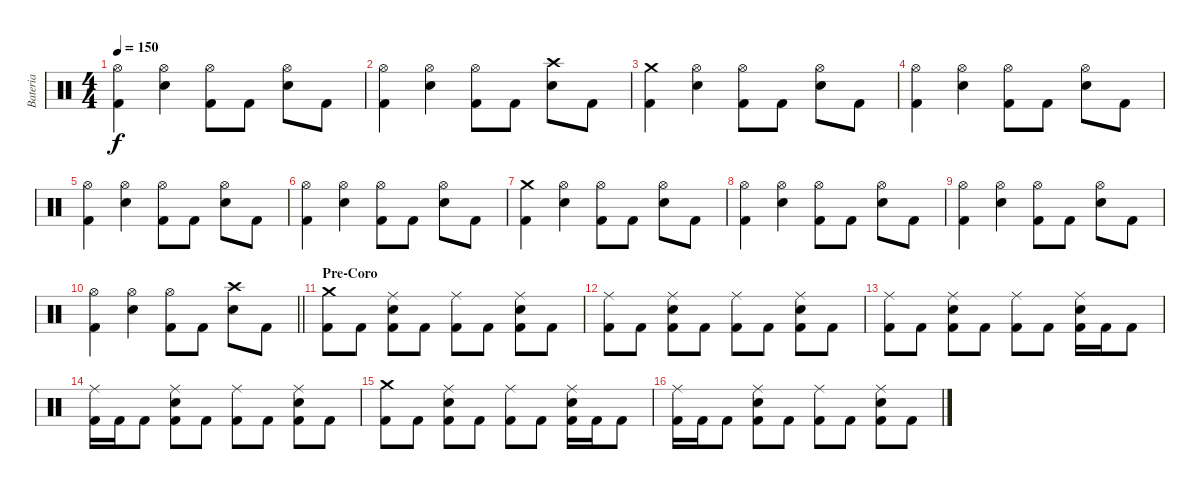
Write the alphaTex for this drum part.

\track ("Bateria" "Bateria") {instrument percussion}
\staff {score}
\articulation defaults
\ts (4 4)
\tempo 150
\clef neutral
\ks c
("Hi-Hat (open)" "Kick (hit) 2").4{dy f} ("Hi-Hat (open)" "Snare (hit) 2").4 ("Hi-Hat (open)" "Kick (hit) 2").8 "Kick (hit) 2".8 ("Hi-Hat (open)" "Snare (hit) 2").8 "Kick (hit) 2".8 |
("Hi-Hat (open)" "Kick (hit) 2").4 ("Hi-Hat (open)" "Snare (hit) 2").4 ("Hi-Hat (open)" "Kick (hit) 2").8 "Kick (hit) 2".8 ("Crash high (hit)" "Snare (hit) 2").8 "Kick (hit) 2".8 |
("Crash medium (hit)" "Kick (hit) 2").4 ("Hi-Hat (open)" "Snare (hit) 2").4 ("Hi-Hat (open)" "Kick (hit) 2").8 "Kick (hit) 2".8 ("Hi-Hat (open)" "Snare (hit) 2").8 "Kick (hit) 2".8 |
("Hi-Hat (open)" "Kick (hit) 2").4 ("Hi-Hat (open)" "Snare (hit) 2").4 ("Hi-Hat (open)" "Kick (hit) 2").8 "Kick (hit) 2".8 ("Hi-Hat (open)" "Snare (hit) 2").8 "Kick (hit) 2".8 |
("Hi-Hat (open)" "Kick (hit) 2").4 ("Hi-Hat (open)" "Snare (hit) 2").4 ("Hi-Hat (open)" "Kick (hit) 2").8 "Kick (hit) 2".8 ("Hi-Hat (open)" "Snare (hit) 2").8 "Kick (hit) 2".8 |
("Hi-Hat (open)" "Kick (hit) 2").4 ("Hi-Hat (open)" "Snare (hit) 2").4 ("Hi-Hat (open)" "Kick (hit) 2").8 "Kick (hit) 2".8 ("Hi-Hat (open)" "Snare (hit) 2").8 "Kick (hit) 2".8 |
("Crash medium (hit)" "Kick (hit) 2").4 ("Hi-Hat (open)" "Snare (hit) 2").4 ("Hi-Hat (open)" "Kick (hit) 2").8 "Kick (hit) 2".8 ("Hi-Hat (open)" "Snare (hit) 2").8 "Kick (hit) 2".8 |
("Hi-Hat (open)" "Kick (hit) 2").4 ("Hi-Hat (open)" "Snare (hit) 2").4 ("Hi-Hat (open)" "Kick (hit) 2").8 "Kick (hit) 2".8 ("Hi-Hat (open)" "Snare (hit) 2").8 "Kick (hit) 2".8 |
("Hi-Hat (open)" "Kick (hit) 2").4 ("Hi-Hat (open)" "Snare (hit) 2").4 ("Hi-Hat (open)" "Kick (hit) 2").8 "Kick (hit) 2".8 ("Hi-Hat (open)" "Snare (hit) 2").8 "Kick (hit) 2".8 |
\barLineRight lightlight
("Hi-Hat (open)" "Kick (hit) 2").4 ("Hi-Hat (open)" "Snare (hit) 2").4 ("Hi-Hat (open)" "Kick (hit) 2").8 "Kick (hit) 2".8 ("Crash high (hit)" "Snare (hit) 2").8 "Kick (hit) 2".8 |
\section ("" "Pre-Coro")
("Crash medium (hit)" "Kick (hit) 2").8 "Kick (hit) 2".8 ("Ride (middle)" "Snare (hit) 2" "Kick (hit) 2").8 "Kick (hit) 2".8 ("Ride (middle)" "Kick (hit) 2").8 "Kick (hit) 2".8 ("Ride (middle)" "Snare (hit) 2" "Kick (hit) 2").8 "Kick (hit) 2".8 |
("Ride (middle)" "Kick (hit) 2").8 "Kick (hit) 2".8 ("Ride (middle)" "Snare (hit) 2" "Kick (hit) 2").8 "Kick (hit) 2".8 ("Ride (middle)" "Kick (hit) 2").8 "Kick (hit) 2".8 ("Ride (middle)" "Snare (hit) 2" "Kick (hit) 2").8 "Kick (hit) 2".8 |
("Ride (middle)" "Kick (hit) 2").8 "Kick (hit) 2".8 ("Ride (middle)" "Snare (hit) 2" "Kick (hit) 2").8 "Kick (hit) 2".8 ("Ride (middle)" "Kick (hit) 2").8 "Kick (hit) 2".8 ("Ride (middle)" "Snare (hit) 2" "Kick (hit) 2").16 "Kick (hit) 2".16 "Kick (hit) 2".8 |
("Ride (middle)" "Kick (hit) 2").16 "Kick (hit) 2".16 "Kick (hit) 2".8 ("Ride (middle)" "Snare (hit) 2" "Kick (hit) 2").8 "Kick (hit) 2".8 ("Ride (middle)" "Kick (hit) 2").8 "Kick (hit) 2".8 ("Ride (middle)" "Snare (hit) 2" "Kick (hit) 2").8 "Kick (hit) 2".8 |
("Crash medium (hit)" "Kick (hit) 2").8 "Kick (hit) 2".8 ("Ride (middle)" "Snare (hit) 2" "Kick (hit) 2").8 "Kick (hit) 2".8 ("Ride (middle)" "Kick (hit) 2").8 "Kick (hit) 2".8 ("Ride (middle)" "Snare (hit) 2" "Kick (hit) 2").16 "Kick (hit) 2".16 "Kick (hit) 2".8 |
("Ride (middle)" "Kick (hit) 2").16 "Kick (hit) 2".16 "Kick (hit) 2".8 ("Ride (middle)" "Snare (hit) 2" "Kick (hit) 2").8 "Kick (hit) 2".8 ("Ride (middle)" "Kick (hit) 2").8 "Kick (hit) 2".8 ("Ride (middle)" "Snare (hit) 2" "Kick (hit) 2").8 "Kick (hit) 2".8
